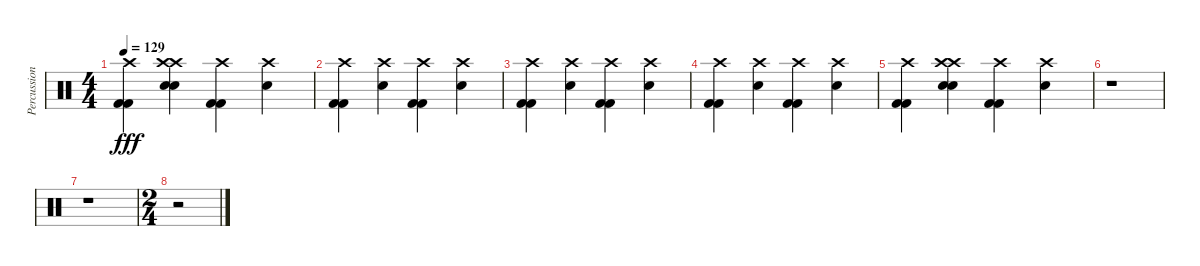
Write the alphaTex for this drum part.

\track ("Percussioni" "Percussion") {instrument percussion}
\staff {score}
\articulation defaults
\ts (4 4)
\tempo 129
\clef neutral
\ks c
("Crash high (hit)" "Kick (hit) 2" "Kick (hit) 2").4{dy fff} ("Crash high (hit)" "Crash high (hit)" "Snare (hit) 2" "Snare (hit) 2").4 ("Crash high (hit)" "Kick (hit) 2" "Kick (hit) 2").4 ("Crash high (hit)" "Snare (hit) 2").4 |
("Crash high (hit)" "Kick (hit) 2" "Kick (hit) 2").4 ("Crash high (hit)" "Snare (hit) 2").4 ("Crash high (hit)" "Kick (hit) 2" "Kick (hit) 2").4 ("Crash high (hit)" "Snare (hit) 2").4 |
("Crash high (hit)" "Kick (hit) 2" "Kick (hit) 2").4 ("Crash high (hit)" "Snare (hit) 2").4 ("Crash high (hit)" "Kick (hit) 2" "Kick (hit) 2").4 ("Crash high (hit)" "Snare (hit) 2").4 |
("Crash high (hit)" "Kick (hit) 2" "Kick (hit) 2").4 ("Crash high (hit)" "Snare (hit) 2").4 ("Crash high (hit)" "Kick (hit) 2" "Kick (hit) 2").4 ("Crash high (hit)" "Snare (hit) 2").4 |
("Crash high (hit)" "Kick (hit) 2" "Kick (hit) 2").4 ("Crash high (hit)" "Crash high (hit)" "Snare (hit) 2" "Snare (hit) 2").4 ("Crash high (hit)" "Kick (hit) 2" "Kick (hit) 2").4 ("Crash high (hit)" "Snare (hit) 2").4 |
r.1 |
r.1 |
\ts (2 4)
r.2
